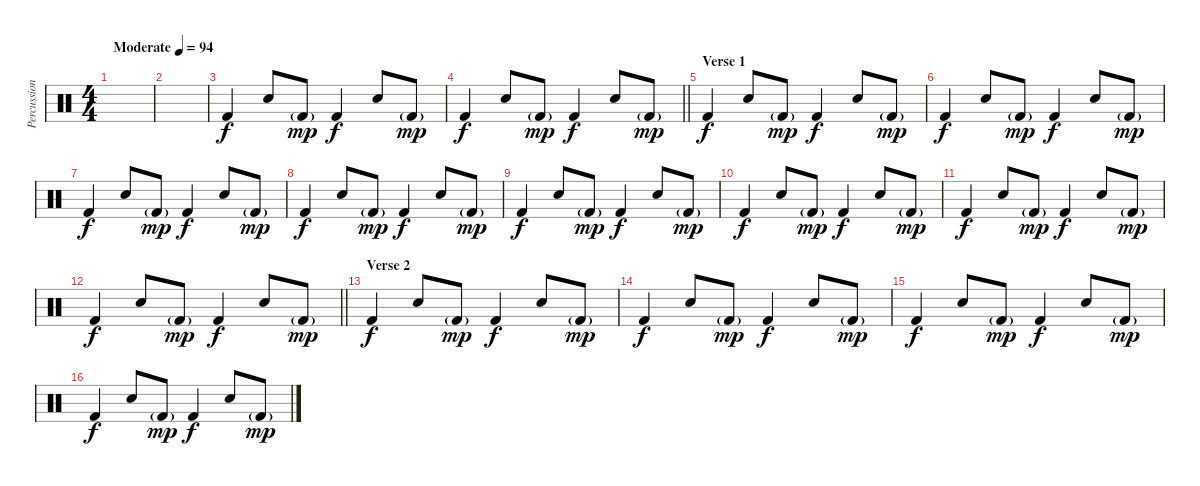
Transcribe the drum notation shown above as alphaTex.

\track ("Percussion" "Percussion") {instrument percussion}
\staff {score}
\articulation defaults
\ts (4 4)
\tempo (94 "Moderate")
\clef neutral
\ks c
|
|
"Kick (hit) 2".4 "Snare (hit) 2".8 "Kick (hit) 2"{g}.8{dy mp} "Kick (hit) 2".4{dy f} "Snare (hit) 2".8 "Kick (hit) 2"{g}.8{dy mp} |
\barLineRight lightlight "Kick (hit) 2".4{dy f} "Snare (hit) 2".8 "Kick (hit) 2"{g}.8{dy mp} "Kick (hit) 2".4{dy f} "Snare (hit) 2".8 "Kick (hit) 2"{g}.8{dy mp}
|
\section ("" "Verse 1")
"Kick (hit) 2".4{dy f} "Snare (hit) 2".8 "Kick (hit) 2"{g}.8{dy mp} "Kick (hit) 2".4{dy f} "Snare (hit) 2".8 "Kick (hit) 2"{g}.8{dy mp} |
"Kick (hit) 2".4{dy f} "Snare (hit) 2".8 "Kick (hit) 2"{g}.8{dy mp} "Kick (hit) 2".4{dy f} "Snare (hit) 2".8 "Kick (hit) 2"{g}.8{dy mp} |
"Kick (hit) 2".4{dy f} "Snare (hit) 2".8 "Kick (hit) 2"{g}.8{dy mp} "Kick (hit) 2".4{dy f} "Snare (hit) 2".8 "Kick (hit) 2"{g}.8{dy mp} |
"Kick (hit) 2".4{dy f} "Snare (hit) 2".8 "Kick (hit) 2"{g}.8{dy mp} "Kick (hit) 2".4{dy f} "Snare (hit) 2".8 "Kick (hit) 2"{g}.8{dy mp} |
"Kick (hit) 2".4{dy f} "Snare (hit) 2".8 "Kick (hit) 2"{g}.8{dy mp} "Kick (hit) 2".4{dy f} "Snare (hit) 2".8 "Kick (hit) 2"{g}.8{dy mp} |
"Kick (hit) 2".4{dy f} "Snare (hit) 2".8 "Kick (hit) 2"{g}.8{dy mp} "Kick (hit) 2".4{dy f} "Snare (hit) 2".8 "Kick (hit) 2"{g}.8{dy mp} |
"Kick (hit) 2".4{dy f} "Snare (hit) 2".8 "Kick (hit) 2"{g}.8{dy mp} "Kick (hit) 2".4{dy f} "Snare (hit) 2".8 "Kick (hit) 2"{g}.8{dy mp} |
\barLineRight lightlight "Kick (hit) 2".4{dy f} "Snare (hit) 2".8 "Kick (hit) 2"{g}.8{dy mp} "Kick (hit) 2".4{dy f} "Snare (hit) 2".8 "Kick (hit) 2"{g}.8{dy mp}
|
\section ("" "Verse 2")
"Kick (hit) 2".4{dy f} "Snare (hit) 2".8 "Kick (hit) 2"{g}.8{dy mp} "Kick (hit) 2".4{dy f} "Snare (hit) 2".8 "Kick (hit) 2"{g}.8{dy mp} |
"Kick (hit) 2".4{dy f} "Snare (hit) 2".8 "Kick (hit) 2"{g}.8{dy mp} "Kick (hit) 2".4{dy f} "Snare (hit) 2".8 "Kick (hit) 2"{g}.8{dy mp} |
"Kick (hit) 2".4{dy f} "Snare (hit) 2".8 "Kick (hit) 2"{g}.8{dy mp} "Kick (hit) 2".4{dy f} "Snare (hit) 2".8 "Kick (hit) 2"{g}.8{dy mp} |
"Kick (hit) 2".4{dy f} "Snare (hit) 2".8 "Kick (hit) 2"{g}.8{dy mp} "Kick (hit) 2".4{dy f} "Snare (hit) 2".8 "Kick (hit) 2"{g}.8{dy mp}
